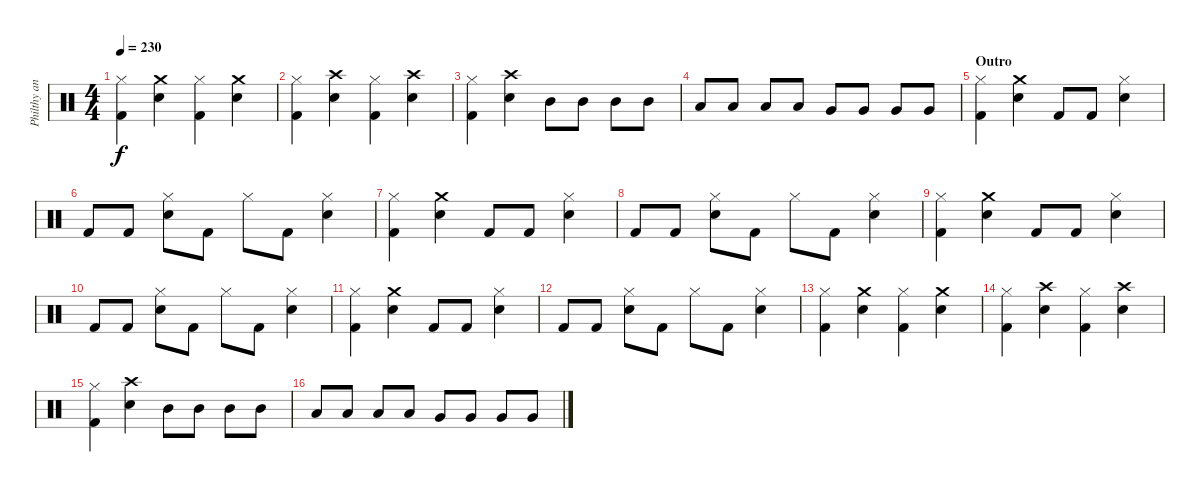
\track ("Philthy animal Taylor" "Philthy an") {instrument percussion}
\staff {score}
\articulation defaults
\ts (4 4)
\tempo 230
\clef neutral
\ks c
("Hi-Hat (closed)" "Kick (hit) 2").4{dy f} ("Crash medium (hit)" "Snare (hit) 2").4 ("Hi-Hat (closed)" "Kick (hit) 2").4 ("Crash medium (hit)" "Snare (hit) 2").4 |
("Hi-Hat (closed)" "Kick (hit) 2").4 ("Crash high (hit)" "Snare (hit) 2").4 ("Hi-Hat (closed)" "Kick (hit) 2").4 ("Crash high (hit)" "Snare (hit) 2").4 |
("Hi-Hat (closed)" "Kick (hit) 2").4 ("Crash high (hit)" "Snare (hit) 2").4 "Mid Tom (hit)".8 "Mid Tom (hit)".8 "Mid Tom (hit)".8 "Mid Tom (hit)".8 |
"Low Tom (hit)".8 "Low Tom (hit)".8 "Low Tom (hit)".8 "Low Tom (hit)".8 "Very Low Tom (hit)".8 "Very Low Tom (hit)".8 "Very Low Tom (hit)".8 "Very Low Tom (hit)".8 |
\section ("" "Outro")
("Hi-Hat (closed)" "Kick (hit) 2").4 ("Crash medium (hit)" "Snare (hit) 2").4 "Kick (hit) 2".8 "Kick (hit) 2".8 ("Hi-Hat (closed)" "Snare (hit) 2").4 |
"Kick (hit) 2".8 "Kick (hit) 2".8 ("Hi-Hat (closed)" "Snare (hit) 2").8 "Kick (hit) 2".8 "Hi-Hat (closed)".8 "Kick (hit) 2".8 ("Hi-Hat (closed)" "Snare (hit) 2").4 |
("Hi-Hat (closed)" "Kick (hit) 2").4 ("Crash medium (hit)" "Snare (hit) 2").4 "Kick (hit) 2".8 "Kick (hit) 2".8 ("Hi-Hat (closed)" "Snare (hit) 2").4 |
"Kick (hit) 2".8 "Kick (hit) 2".8 ("Hi-Hat (closed)" "Snare (hit) 2").8 "Kick (hit) 2".8 "Hi-Hat (closed)".8 "Kick (hit) 2".8 ("Hi-Hat (closed)" "Snare (hit) 2").4 |
("Hi-Hat (closed)" "Kick (hit) 2").4 ("Crash medium (hit)" "Snare (hit) 2").4 "Kick (hit) 2".8 "Kick (hit) 2".8 ("Hi-Hat (closed)" "Snare (hit) 2").4 |
"Kick (hit) 2".8 "Kick (hit) 2".8 ("Hi-Hat (closed)" "Snare (hit) 2").8 "Kick (hit) 2".8 "Hi-Hat (closed)".8 "Kick (hit) 2".8 ("Hi-Hat (closed)" "Snare (hit) 2").4 |
("Hi-Hat (closed)" "Kick (hit) 2").4 ("Crash medium (hit)" "Snare (hit) 2").4 "Kick (hit) 2".8 "Kick (hit) 2".8 ("Hi-Hat (closed)" "Snare (hit) 2").4 |
"Kick (hit) 2".8 "Kick (hit) 2".8 ("Hi-Hat (closed)" "Snare (hit) 2").8 "Kick (hit) 2".8 "Hi-Hat (closed)".8 "Kick (hit) 2".8 ("Hi-Hat (closed)" "Snare (hit) 2").4 |
("Hi-Hat (closed)" "Kick (hit) 2").4 ("Crash medium (hit)" "Snare (hit) 2").4 ("Hi-Hat (closed)" "Kick (hit) 2").4 ("Crash medium (hit)" "Snare (hit) 2").4 |
("Hi-Hat (closed)" "Kick (hit) 2").4 ("Crash high (hit)" "Snare (hit) 2").4 ("Hi-Hat (closed)" "Kick (hit) 2").4 ("Crash high (hit)" "Snare (hit) 2").4 |
("Hi-Hat (closed)" "Kick (hit) 2").4 ("Crash high (hit)" "Snare (hit) 2").4 "Mid Tom (hit)".8 "Mid Tom (hit)".8 "Mid Tom (hit)".8 "Mid Tom (hit)".8 |
"Low Tom (hit)".8 "Low Tom (hit)".8 "Low Tom (hit)".8 "Low Tom (hit)".8 "Very Low Tom (hit)".8 "Very Low Tom (hit)".8 "Very Low Tom (hit)".8 "Very Low Tom (hit)".8
